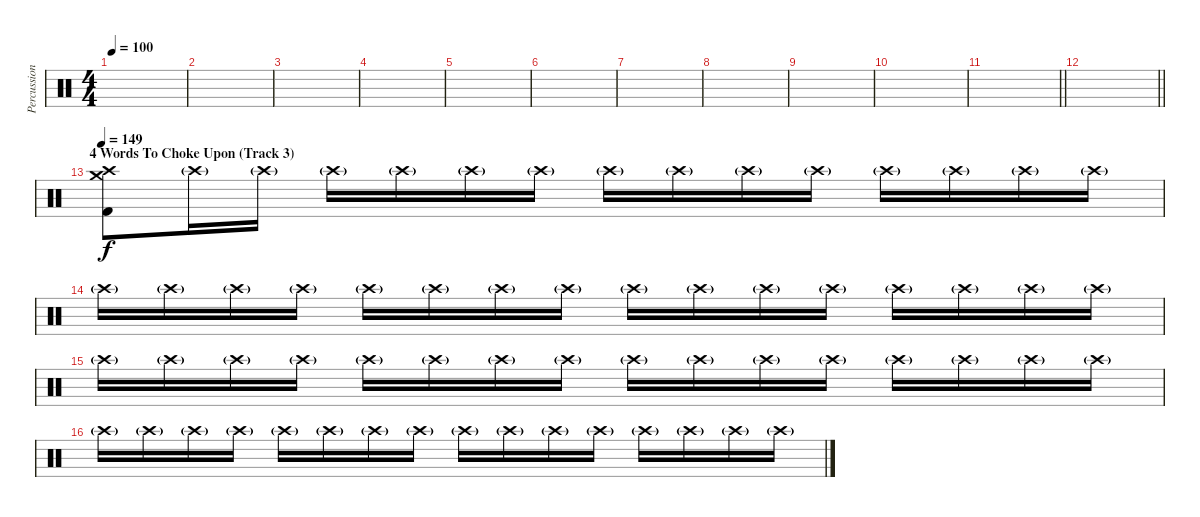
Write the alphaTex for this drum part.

\track ("Percussion (Moose)" "Percussion") {instrument percussion}
\staff {score}
\articulation defaults
\ts (4 4)
\tempo 100
\clef neutral
\ks c
|
|
|
|
|
|
|
|
|
|
\barLineRight lightlight
|
\barLineRight lightlight
|
\section ("" "4 Words To Choke Upon (Track 3)")
\tempo 94
\tempo 149
("Crash high (hit)" "Crash medium (hit)" "Kick (hit) 2").8{dy f} "Crash high (hit)"{g}.16 "Crash high (hit)"{g}.16 "Crash high (hit)"{g}.16 "Crash high (hit)"{g}.16 "Crash high (hit)"{g}.16 "Crash high (hit)"{g}.16 "Crash high (hit)"{g}.16 "Crash high (hit)"{g}.16 "Crash high (hit)"{g}.16 "Crash high (hit)"{g}.16 "Crash high (hit)"{g}.16 "Crash high (hit)"{g}.16 "Crash high (hit)"{g}.16 "Crash high (hit)"{g}.16 |
"Crash high (hit)"{g}.16 "Crash high (hit)"{g}.16 "Crash high (hit)"{g}.16 "Crash high (hit)"{g}.16 "Crash high (hit)"{g}.16 "Crash high (hit)"{g}.16 "Crash high (hit)"{g}.16 "Crash high (hit)"{g}.16 "Crash high (hit)"{g}.16 "Crash high (hit)"{g}.16 "Crash high (hit)"{g}.16 "Crash high (hit)"{g}.16 "Crash high (hit)"{g}.16 "Crash high (hit)"{g}.16 "Crash high (hit)"{g}.16 "Crash high (hit)"{g}.16 |
"Crash high (hit)"{g}.16 "Crash high (hit)"{g}.16 "Crash high (hit)"{g}.16 "Crash high (hit)"{g}.16 "Crash high (hit)"{g}.16 "Crash high (hit)"{g}.16 "Crash high (hit)"{g}.16 "Crash high (hit)"{g}.16 "Crash high (hit)"{g}.16 "Crash high (hit)"{g}.16 "Crash high (hit)"{g}.16 "Crash high (hit)"{g}.16 "Crash high (hit)"{g}.16 "Crash high (hit)"{g}.16 "Crash high (hit)"{g}.16 "Crash high (hit)"{g}.16 |
"Crash high (hit)"{g}.16 "Crash high (hit)"{g}.16 "Crash high (hit)"{g}.16 "Crash high (hit)"{g}.16 "Crash high (hit)"{g}.16 "Crash high (hit)"{g}.16 "Crash high (hit)"{g}.16 "Crash high (hit)"{g}.16 "Crash high (hit)"{g}.16 "Crash high (hit)"{g}.16 "Crash high (hit)"{g}.16 "Crash high (hit)"{g}.16 "Crash high (hit)"{g}.16 "Crash high (hit)"{g}.16 "Crash high (hit)"{g}.16 "Crash high (hit)"{g}.16
